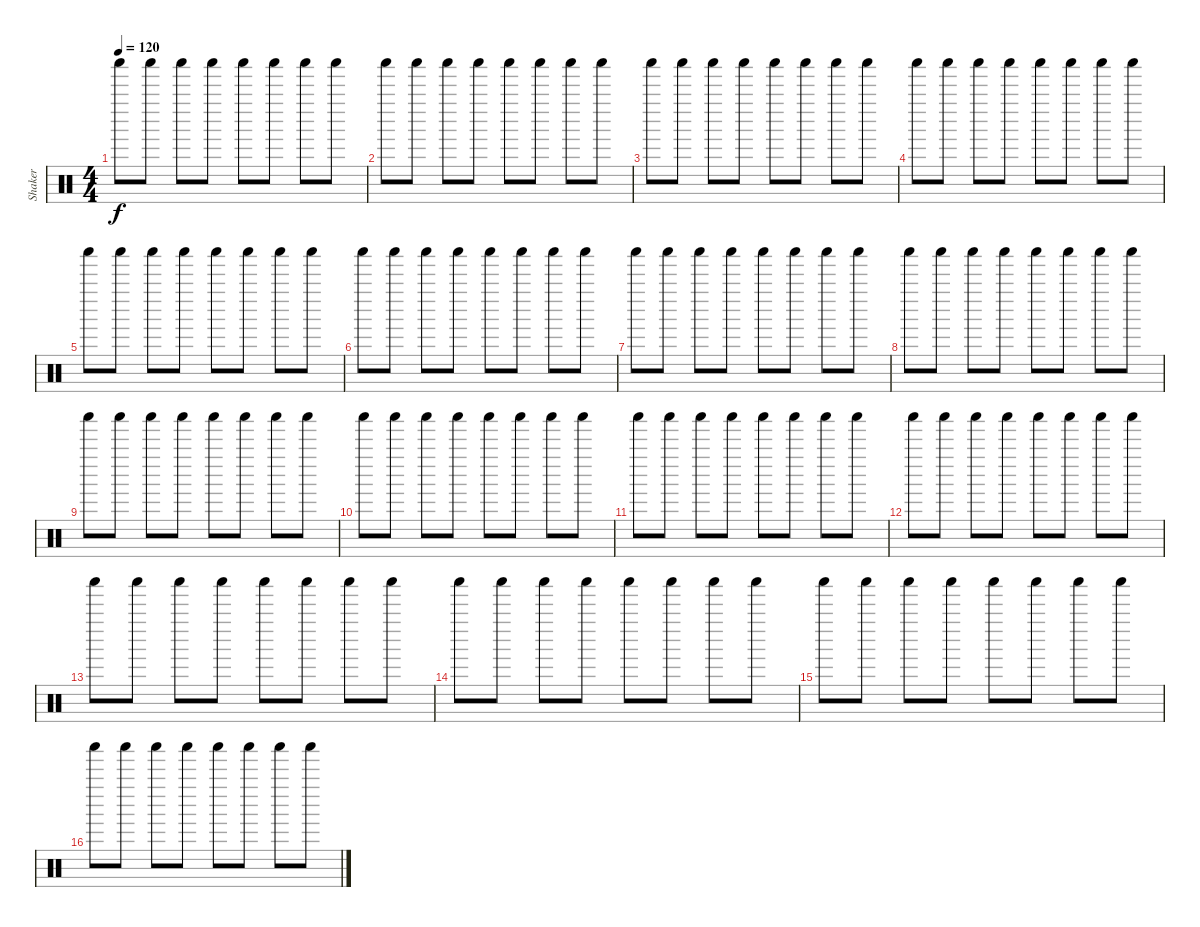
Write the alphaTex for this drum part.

\track ("Shaker" "Shaker") {instrument percussion}
\staff {score}
\articulation defaults
\ts (4 4)
\tempo 120
\clef neutral
\ks c "Shaker (hit)".8{dy f} "Shaker (hit)".8 "Shaker (hit)".8 "Shaker (hit)".8 "Shaker (hit)".8 "Shaker (hit)".8 "Shaker (hit)".8 "Shaker (hit)".8
|
"Shaker (hit)".8 "Shaker (hit)".8 "Shaker (hit)".8 "Shaker (hit)".8 "Shaker (hit)".8 "Shaker (hit)".8 "Shaker (hit)".8 "Shaker (hit)".8 |
"Shaker (hit)".8 "Shaker (hit)".8 "Shaker (hit)".8 "Shaker (hit)".8 "Shaker (hit)".8 "Shaker (hit)".8 "Shaker (hit)".8 "Shaker (hit)".8 |
"Shaker (hit)".8 "Shaker (hit)".8 "Shaker (hit)".8 "Shaker (hit)".8 "Shaker (hit)".8 "Shaker (hit)".8 "Shaker (hit)".8 "Shaker (hit)".8 |
"Shaker (hit)".8 "Shaker (hit)".8 "Shaker (hit)".8 "Shaker (hit)".8 "Shaker (hit)".8 "Shaker (hit)".8 "Shaker (hit)".8 "Shaker (hit)".8 |
"Shaker (hit)".8 "Shaker (hit)".8 "Shaker (hit)".8 "Shaker (hit)".8 "Shaker (hit)".8 "Shaker (hit)".8 "Shaker (hit)".8 "Shaker (hit)".8 |
"Shaker (hit)".8 "Shaker (hit)".8 "Shaker (hit)".8 "Shaker (hit)".8 "Shaker (hit)".8 "Shaker (hit)".8 "Shaker (hit)".8 "Shaker (hit)".8 |
"Shaker (hit)".8 "Shaker (hit)".8 "Shaker (hit)".8 "Shaker (hit)".8 "Shaker (hit)".8 "Shaker (hit)".8 "Shaker (hit)".8 "Shaker (hit)".8 |
"Shaker (hit)".8 "Shaker (hit)".8 "Shaker (hit)".8 "Shaker (hit)".8 "Shaker (hit)".8 "Shaker (hit)".8 "Shaker (hit)".8 "Shaker (hit)".8 |
"Shaker (hit)".8 "Shaker (hit)".8 "Shaker (hit)".8 "Shaker (hit)".8 "Shaker (hit)".8 "Shaker (hit)".8 "Shaker (hit)".8 "Shaker (hit)".8 |
"Shaker (hit)".8 "Shaker (hit)".8 "Shaker (hit)".8 "Shaker (hit)".8 "Shaker (hit)".8 "Shaker (hit)".8 "Shaker (hit)".8 "Shaker (hit)".8 |
"Shaker (hit)".8 "Shaker (hit)".8 "Shaker (hit)".8 "Shaker (hit)".8 "Shaker (hit)".8 "Shaker (hit)".8 "Shaker (hit)".8 "Shaker (hit)".8 |
"Shaker (hit)".8 "Shaker (hit)".8 "Shaker (hit)".8 "Shaker (hit)".8 "Shaker (hit)".8 "Shaker (hit)".8 "Shaker (hit)".8 "Shaker (hit)".8 |
"Shaker (hit)".8 "Shaker (hit)".8 "Shaker (hit)".8 "Shaker (hit)".8 "Shaker (hit)".8 "Shaker (hit)".8 "Shaker (hit)".8 "Shaker (hit)".8 |
"Shaker (hit)".8 "Shaker (hit)".8 "Shaker (hit)".8 "Shaker (hit)".8 "Shaker (hit)".8 "Shaker (hit)".8 "Shaker (hit)".8 "Shaker (hit)".8 |
"Shaker (hit)".8 "Shaker (hit)".8 "Shaker (hit)".8 "Shaker (hit)".8 "Shaker (hit)".8 "Shaker (hit)".8 "Shaker (hit)".8 "Shaker (hit)".8
